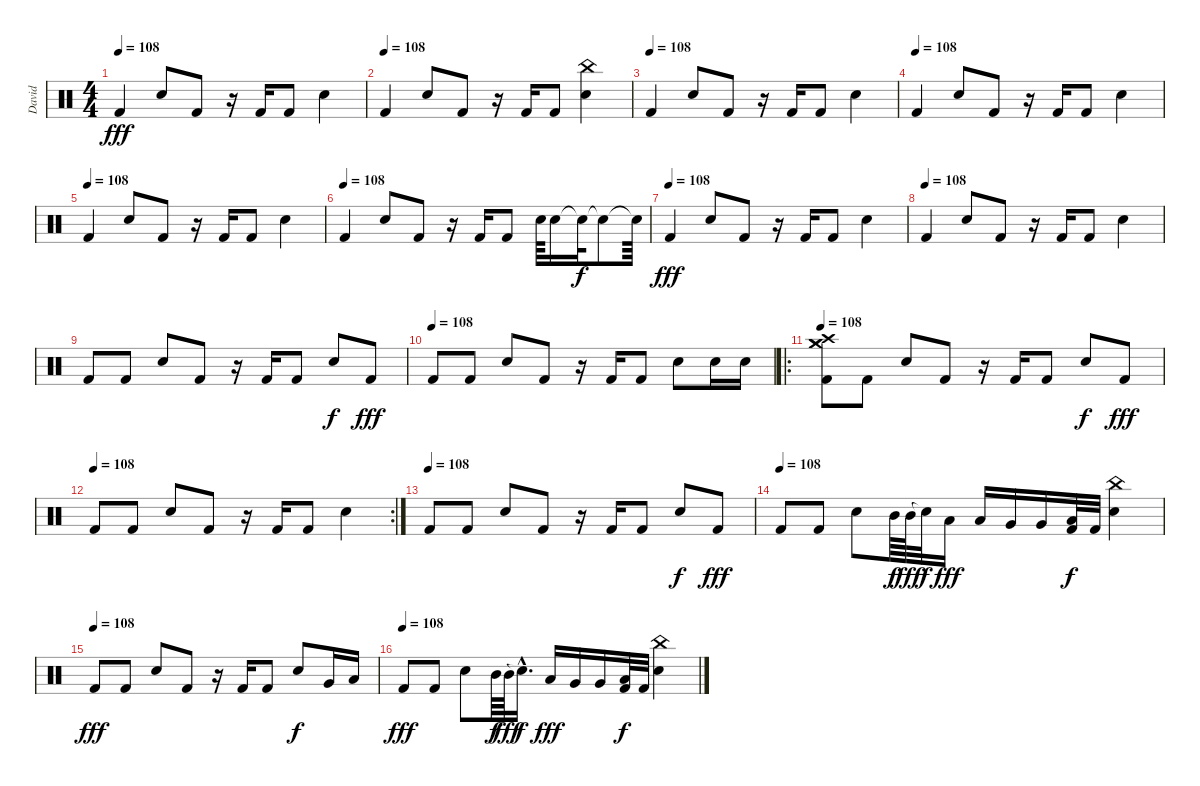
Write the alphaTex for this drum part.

\track ("David" "David") {instrument percussion}
\staff {score}
\articulation defaults
\ts (4 4)
\tempo 108
\clef neutral
\ks c "Kick (hit) 2".4{dy fff} "Snare (hit) 2".8 "Kick (hit) 2".8
r.16 "Kick (hit) 2".16 "Kick (hit) 2".8 "Snare (hit) 2".4 |
\tempo (108)
"Kick (hit) 2".4 "Snare (hit) 2".8 "Kick (hit) 2".8 r.16 "Kick (hit) 2".16 "Kick (hit) 2".8 ("China (hit)" "Snare (hit) 2").4 |
\tempo (108)
"Kick (hit) 2".4 "Snare (hit) 2".8 "Kick (hit) 2".8 r.16 "Kick (hit) 2".16 "Kick (hit) 2".8 "Snare (hit) 2".4 |
\tempo (108)
"Kick (hit) 2".4 "Snare (hit) 2".8 "Kick (hit) 2".8 r.16 "Kick (hit) 2".16 "Kick (hit) 2".8 "Snare (hit) 2".4 |
\tempo (108)
"Kick (hit) 2".4 "Snare (hit) 2".8 "Kick (hit) 2".8 r.16 "Kick (hit) 2".16 "Kick (hit) 2".8 "Snare (hit) 2".4 |
\tempo (108)
"Kick (hit) 2".4 "Snare (hit) 2".8 "Kick (hit) 2".8 r.16 "Kick (hit) 2".16 "Kick (hit) 2".8 "Snare (hit) 2".64 "Snare (hit) 2".16 "Snare (hit)"{t}.32{dy f} "Snare (hit)"{t}.8 "Snare (hit)"{t}.64 |
\tempo (108)
"Kick (hit) 2".4{dy fff} "Snare (hit) 2".8 "Kick (hit) 2".8 r.16 "Kick (hit) 2".16 "Kick (hit) 2".8 "Snare (hit) 2".4 |
\tempo (108)
"Kick (hit) 2".4 "Snare (hit) 2".8 "Kick (hit) 2".8 r.16 "Kick (hit) 2".16 "Kick (hit) 2".8 "Snare (hit) 2".4 |
"Kick (hit) 2".8 "Kick (hit) 2".8 "Snare (hit) 2".8 "Kick (hit) 2".8 r.16 "Kick (hit) 2".16 "Kick (hit) 2".8 "Snare (hit) 2".8{dy f} "Kick (hit) 2".8{dy fff} |
\tempo (108)
"Kick (hit) 2".8 "Kick (hit) 2".8 "Snare (hit) 2".8 "Kick (hit) 2".8 r.16 "Kick (hit) 2".16 "Kick (hit) 2".8 "Snare (hit) 2".8 "Snare (hit) 2".16 "Snare (hit) 2".16 |
\ro
\tempo 108
("Crash medium (hit)" "Crash high (hit)" "Crash medium (hit)" "Kick (hit) 2").8 "Kick (hit) 2".8 "Snare (hit) 2".8 "Kick (hit) 2".8 r.16 "Kick (hit) 2".16 "Kick (hit) 2".8 "Snare (hit) 2".8{dy f} "Kick (hit) 2".8{dy fff} |
\rc 2
\tempo (108)
"Kick (hit) 2".8 "Kick (hit) 2".8 "Snare (hit) 2".8 "Kick (hit) 2".8 r.16 "Kick (hit) 2".16 "Kick (hit) 2".8 "Snare (hit) 2".4 |
\tempo (108)
"Kick (hit) 2".8 "Kick (hit) 2".8 "Snare (hit) 2".8 "Kick (hit) 2".8 r.16 "Kick (hit) 2".16 "Kick (hit) 2".8 "Snare (hit) 2".8{dy f} "Kick (hit) 2".8{dy fff} |
\tempo (108)
"Kick (hit) 2".8 "Kick (hit) 2".8 "Snare (hit) 2".8 "Mid Tom (hit)".64{dy f} "Mid Tom (hit)".64{dy fff} "Snare (hit)"{t}.32{dy f} "Low Tom (hit)".16{dy fff} "Low Tom (hit)".16 "Very Low Tom (hit)".16 "Very Low Tom (hit)".16 ("Low Floor Tom (hit)" "Kick (hit) 2").32{dy f} "Kick (hit) 2".32 ("China (hit)" "Snare (hit) 2").4 |
\tempo (108)
"Kick (hit) 2".8{dy fff} "Kick (hit) 2".8 "Snare (hit) 2".8 "Kick (hit) 2".8 r.16 "Kick (hit) 2".16 "Kick (hit) 2".8 "Snare (hit) 2".8{dy f} "Very Low Tom (hit)".16 "Low Tom (hit)".16 |
\tempo (108)
"Kick (hit) 2".8{dy fff} "Kick (hit) 2".8 "Snare (hit) 2".8 "Mid Tom (hit)".64{dy f} "Mid Tom (hit)".64{dy fff} "Snare (hit)"{hac t}.16{d dy f} "Low Tom (hit)".16{dy fff} "Very Low Tom (hit)".16 "Very Low Tom (hit)".16 ("Low Floor Tom (hit)" "Kick (hit) 2").32{dy f} "Kick (hit) 2".32 ("China (hit)" "Snare (hit) 2").4
